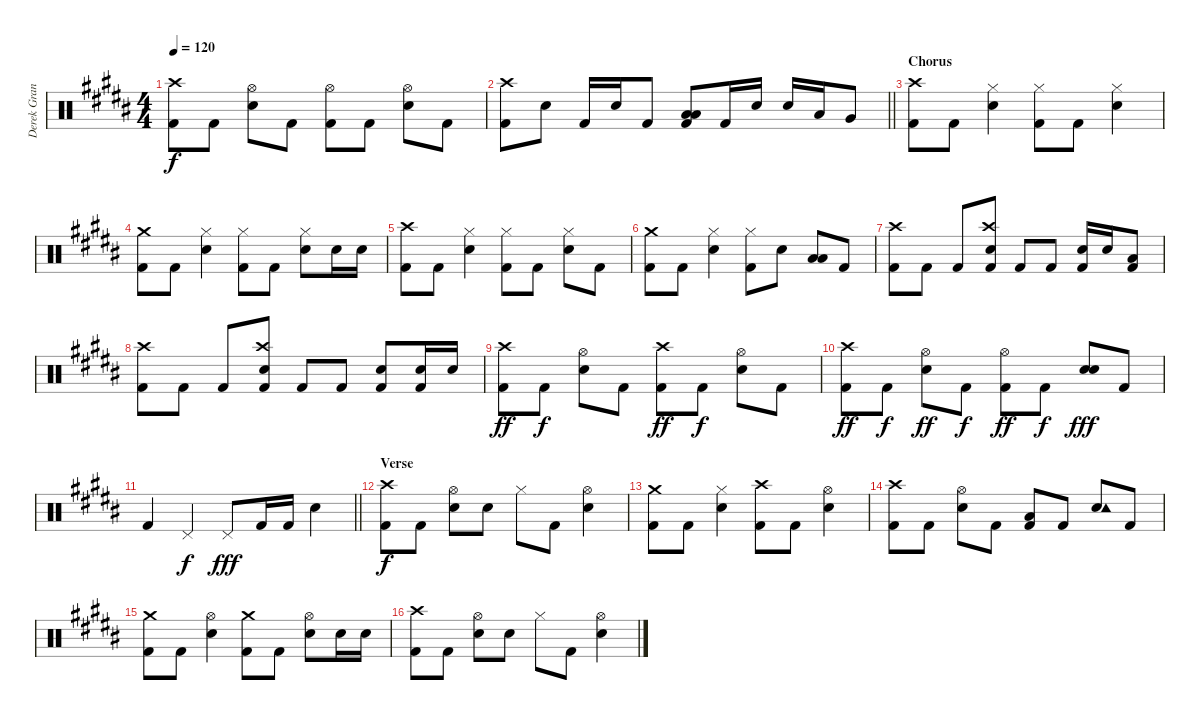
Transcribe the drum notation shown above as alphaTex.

\track ("Derek Grant - Drums" "Derek Gran") {instrument percussion}
\staff {score}
\articulation defaults
\ts (4 4)
\tempo 120
\clef neutral
\ks b
("Kick (hit) 2" "Crash high (hit)").8{dy f} "Kick (hit) 2".8 ("Snare (hit) 2" "Hi-Hat (open)").8 "Kick (hit) 2".8 ("Kick (hit) 2" "Hi-Hat (open)").8 "Kick (hit) 2".8 ("Snare (hit) 2" "Hi-Hat (open)").8 "Kick (hit) 2".8 |
\barLineRight lightlight
("Kick (hit) 2" "Crash high (hit)").8 "Snare (hit) 2".8 "Kick (hit) 2".16 "Snare (hit) 2".16 "Kick (hit) 2".8 ("Kick (hit) 2" "Low Floor Tom (hit)" "Low Tom (hit)").8 "Kick (hit) 2".16 "Snare (hit) 2".16 "Snare (hit) 2".16 "Low Tom (hit)".16 "Very Low Tom (hit)".8 |
\section ("" "Chorus")
("Kick (hit) 2" "Crash high (hit)").8 "Kick (hit) 2".8 ("Snare (hit) 2" "Hi-Hat (closed)").4 ("Kick (hit) 2" "Hi-Hat (closed)").8 "Kick (hit) 2".8 ("Snare (hit) 2" "Hi-Hat (closed)").4 |
("Kick (hit) 2" "Crash medium (hit)").8 "Kick (hit) 2".8 ("Snare (hit) 2" "Hi-Hat (closed)").4 ("Kick (hit) 2" "Hi-Hat (closed)").8 "Kick (hit) 2".8 ("Snare (hit) 2" "Hi-Hat (closed)").8 "Snare (hit) 2".16 "Snare (hit) 2".16 |
("Kick (hit) 2" "Crash high (hit)").8 "Kick (hit) 2".8 ("Snare (hit) 2" "Hi-Hat (closed)").4 ("Kick (hit) 2" "Hi-Hat (closed)").8 "Kick (hit) 2".8 ("Snare (hit) 2" "Hi-Hat (closed)").8 "Kick (hit) 2".8 |
("Kick (hit) 2" "Crash medium (hit)").8 "Kick (hit) 2".8 ("Snare (hit) 2" "Hi-Hat (closed)").4 ("Kick (hit) 2" "Hi-Hat (closed)").8 "Electric Snare (hit)".8 ("Low Floor Tom (hit)" "Low Tom (hit)").8 "Kick (hit) 2".8 |
("Kick (hit) 2" "Crash high (hit)").8 "Kick (hit) 2".8 "Kick (hit) 2".8 ("Snare (hit) 2" "Kick (hit) 2" "Crash high (hit)").8 "Kick (hit) 2".8 "Kick (hit) 2".8 ("Kick (hit) 2" "Snare (hit) 2").16 "Snare (hit) 2".16 ("Kick (hit) 2" "Low Floor Tom (hit)").8 |
("Kick (hit) 2" "Crash high (hit)").8 "Kick (hit) 2".8 "Kick (hit) 2".8 ("Snare (hit) 2" "Kick (hit) 2" "Crash high (hit)").8 "Kick (hit) 2".8 "Kick (hit) 2".8 ("Snare (hit) 2" "Kick (hit) 2").8 ("Kick (hit) 2" "Snare (hit) 2").16 "Snare (hit) 2".16 |
("Kick (hit) 2" "Crash high (hit)").8{dy ff} "Kick (hit) 2".8{dy f} ("Snare (hit) 2" "Hi-Hat (open)").8 "Kick (hit) 2".8 ("Kick (hit) 2" "Crash high (hit)").8{dy ff} "Kick (hit) 2".8{dy f} ("Snare (hit) 2" "Hi-Hat (open)").8 "Kick (hit) 2".8 |
("Kick (hit) 2" "Crash high (hit)").8{dy ff} "Kick (hit) 2".8{dy f} ("Snare (hit) 2" "Hi-Hat (open)").8{dy ff} "Kick (hit) 2".8{dy f} ("Kick (hit) 2" "Hi-Hat (open)").8{dy ff} "Kick (hit) 2".8{dy f} ("Snare (hit) 2" "Snare (hit) 2").8{dy fff} "Kick (hit) 2".8 |
\barLineRight lightlight "Kick (hit) 2".4 "Pedal Hi-Hat (hit)".4{dy f} "Pedal Hi-Hat (hit)".8{dy fff} "Kick (hit) 2".16 "Kick (hit) 2".16 "Snare (hit) 2".4
|
\section ("" "Verse")
("Kick (hit) 2" "Crash high (hit)").8{dy f} "Kick (hit) 2".8 ("Snare (hit) 2" "Hi-Hat (open)").8 "Snare (hit) 2".8 "Hi-Hat (closed)".8 "Kick (hit) 2".8 ("Snare (hit) 2" "Hi-Hat (open)").4 |
("Kick (hit) 2" "Crash medium (hit)").8 "Kick (hit) 2".8 ("Snare (hit) 2" "Hi-Hat (closed)").4 ("Kick (hit) 2" "Crash high (hit)").8 "Kick (hit) 2".8 ("Snare (hit) 2" "Hi-Hat (open)").4 |
("Kick (hit) 2" "Crash high (hit)").8 "Kick (hit) 2".8 ("Snare (hit) 2" "Hi-Hat (open)").8 "Kick (hit) 2".8 ("Kick (hit) 2" "Low Tom (hit)").8 "Kick (hit) 2".8 ("Snare (hit) 2" "Tambourine (hit)").8 "Kick (hit) 2".8 |
("Kick (hit) 2" "Crash medium (hit)").8 "Kick (hit) 2".8 ("Snare (hit) 2" "Hi-Hat (open)").4 ("Kick (hit) 2" "Crash medium (hit)").8 "Kick (hit) 2".8 ("Snare (hit) 2" "Hi-Hat (open)").8 "Snare (hit) 2".16 "Snare (hit) 2".16 |
("Kick (hit) 2" "Crash high (hit)").8 "Kick (hit) 2".8 ("Snare (hit) 2" "Hi-Hat (open)").8 "Snare (hit) 2".8 "Hi-Hat (closed)".8 "Kick (hit) 2".8 ("Snare (hit) 2" "Hi-Hat (open)").4
